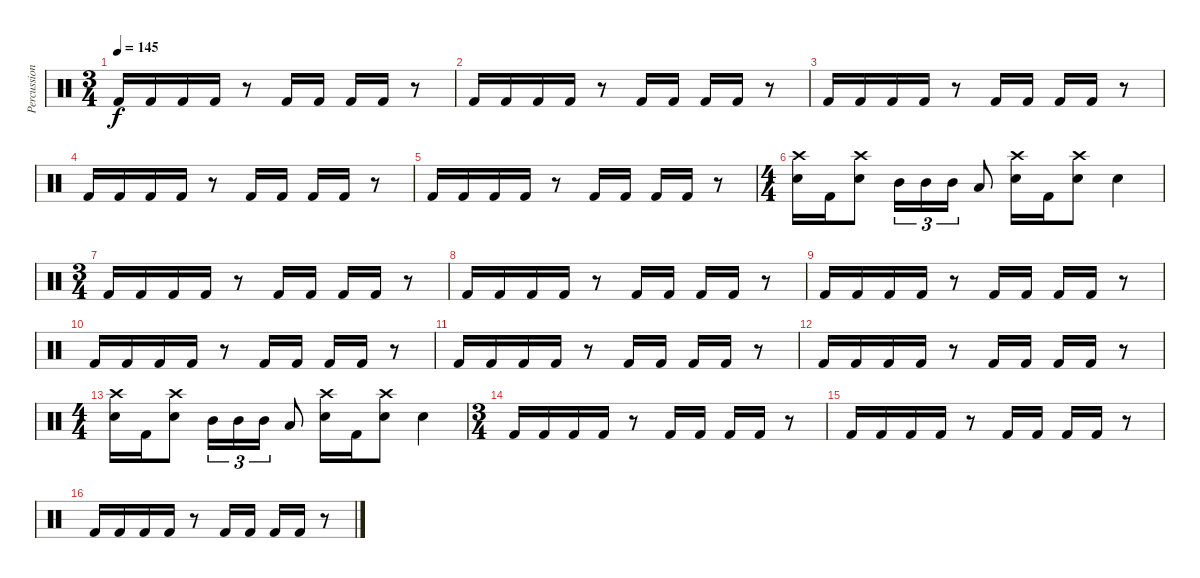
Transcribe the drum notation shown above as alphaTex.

\track ("Percussion" "Percussion") {instrument percussion}
\staff {score}
\articulation defaults
\ts (3 4)
\tempo 145
\clef neutral
\ks c "Kick (hit) 2".16{dy f} "Kick (hit) 2".16 "Kick (hit) 2".16 "Kick (hit) 2".16
r.8 "Kick (hit) 2".16 "Kick (hit) 2".16 "Kick (hit) 2".16 "Kick (hit) 2".16 r.8 |
"Kick (hit) 2".16 "Kick (hit) 2".16 "Kick (hit) 2".16 "Kick (hit) 2".16 r.8 "Kick (hit) 2".16 "Kick (hit) 2".16 "Kick (hit) 2".16 "Kick (hit) 2".16 r.8 |
"Kick (hit) 2".16 "Kick (hit) 2".16 "Kick (hit) 2".16 "Kick (hit) 2".16 r.8 "Kick (hit) 2".16 "Kick (hit) 2".16 "Kick (hit) 2".16 "Kick (hit) 2".16 r.8 |
"Kick (hit) 2".16 "Kick (hit) 2".16 "Kick (hit) 2".16 "Kick (hit) 2".16 r.8 "Kick (hit) 2".16 "Kick (hit) 2".16 "Kick (hit) 2".16 "Kick (hit) 2".16 r.8 |
"Kick (hit) 2".16 "Kick (hit) 2".16 "Kick (hit) 2".16 "Kick (hit) 2".16 r.8 "Kick (hit) 2".16 "Kick (hit) 2".16 "Kick (hit) 2".16 "Kick (hit) 2".16 r.8 |
\ts (4 4)
("Crash high (hit)" "Electric Snare (hit)").16 "Kick (hit) 2".16 ("Crash high (hit)" "Electric Snare (hit)").8 "Mid Tom (hit)".16{tu (3 2)} "Mid Tom (hit)".16{tu (3 2)} "Mid Tom (hit)".16{tu (3 2)} "Low Tom (hit)".8 ("Crash high (hit)" "Electric Snare (hit)").16 "Kick (hit) 2".16 ("Crash high (hit)" "Electric Snare (hit)").8 "Electric Snare (hit)".4 |
\ts (3 4)
"Kick (hit) 2".16 "Kick (hit) 2".16 "Kick (hit) 2".16 "Kick (hit) 2".16 r.8 "Kick (hit) 2".16 "Kick (hit) 2".16 "Kick (hit) 2".16 "Kick (hit) 2".16 r.8 |
"Kick (hit) 2".16 "Kick (hit) 2".16 "Kick (hit) 2".16 "Kick (hit) 2".16 r.8 "Kick (hit) 2".16 "Kick (hit) 2".16 "Kick (hit) 2".16 "Kick (hit) 2".16 r.8 |
"Kick (hit) 2".16 "Kick (hit) 2".16 "Kick (hit) 2".16 "Kick (hit) 2".16 r.8 "Kick (hit) 2".16 "Kick (hit) 2".16 "Kick (hit) 2".16 "Kick (hit) 2".16 r.8 |
"Kick (hit) 2".16 "Kick (hit) 2".16 "Kick (hit) 2".16 "Kick (hit) 2".16 r.8 "Kick (hit) 2".16 "Kick (hit) 2".16 "Kick (hit) 2".16 "Kick (hit) 2".16 r.8 |
"Kick (hit) 2".16 "Kick (hit) 2".16 "Kick (hit) 2".16 "Kick (hit) 2".16 r.8 "Kick (hit) 2".16 "Kick (hit) 2".16 "Kick (hit) 2".16 "Kick (hit) 2".16 r.8 |
"Kick (hit) 2".16 "Kick (hit) 2".16 "Kick (hit) 2".16 "Kick (hit) 2".16 r.8 "Kick (hit) 2".16 "Kick (hit) 2".16 "Kick (hit) 2".16 "Kick (hit) 2".16 r.8 |
\ts (4 4)
("Crash high (hit)" "Electric Snare (hit)").16 "Kick (hit) 2".16 ("Crash high (hit)" "Electric Snare (hit)").8 "Mid Tom (hit)".16{tu (3 2)} "Mid Tom (hit)".16{tu (3 2)} "Mid Tom (hit)".16{tu (3 2)} "Low Tom (hit)".8 ("Crash high (hit)" "Electric Snare (hit)").16 "Kick (hit) 2".16 ("Crash high (hit)" "Electric Snare (hit)").8 "Electric Snare (hit)".4 |
\ts (3 4)
"Kick (hit) 2".16 "Kick (hit) 2".16 "Kick (hit) 2".16 "Kick (hit) 2".16 r.8 "Kick (hit) 2".16 "Kick (hit) 2".16 "Kick (hit) 2".16 "Kick (hit) 2".16 r.8 |
"Kick (hit) 2".16 "Kick (hit) 2".16 "Kick (hit) 2".16 "Kick (hit) 2".16 r.8 "Kick (hit) 2".16 "Kick (hit) 2".16 "Kick (hit) 2".16 "Kick (hit) 2".16 r.8 |
"Kick (hit) 2".16 "Kick (hit) 2".16 "Kick (hit) 2".16 "Kick (hit) 2".16 r.8 "Kick (hit) 2".16 "Kick (hit) 2".16 "Kick (hit) 2".16 "Kick (hit) 2".16 r.8
